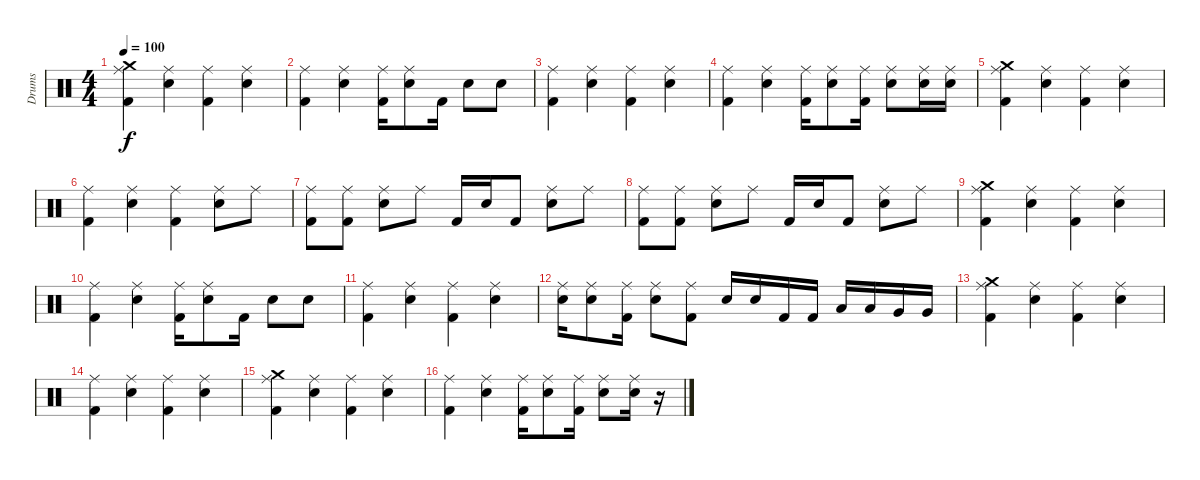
\track ("Drums" "Drums") {instrument percussion}
\staff {score}
\articulation defaults
\ts (4 4)
\tempo 100
\clef neutral
\ks c
("Kick (hit) 2" "Ride (middle)" "Crash medium (hit)").4{dy f} ("Snare (hit) 2" "Ride (middle)").4 ("Kick (hit) 2" "Ride (middle)").4 ("Snare (hit) 2" "Ride (middle)").4 |
("Kick (hit) 2" "Ride (middle)").4 ("Snare (hit) 2" "Ride (middle)").4 ("Kick (hit) 2" "Ride (middle)").16 ("Snare (hit) 2" "Ride (middle)").8 "Kick (hit) 2".16 "Snare (hit) 2".8 "Snare (hit) 2".8 |
("Kick (hit) 2" "Ride (middle)").4 ("Snare (hit) 2" "Ride (middle)").4 ("Kick (hit) 2" "Ride (middle)").4 ("Snare (hit) 2" "Ride (middle)").4 |
("Kick (hit) 2" "Ride (middle)").4 ("Snare (hit) 2" "Ride (middle)").4 ("Kick (hit) 2" "Ride (middle)").16 ("Snare (hit) 2" "Ride (middle)").8 ("Kick (hit) 2" "Ride (middle)").16 ("Snare (hit) 2" "Ride (middle)").8 ("Snare (hit) 2" "Ride (middle)").16 ("Snare (hit) 2" "Ride (middle)").16 |
("Kick (hit) 2" "Ride (middle)" "Crash medium (hit)").4 ("Snare (hit) 2" "Ride (middle)").4 ("Kick (hit) 2" "Ride (middle)").4 ("Snare (hit) 2" "Ride (middle)").4 |
("Kick (hit) 2" "Ride (middle)").4 ("Snare (hit) 2" "Ride (middle)").4 ("Kick (hit) 2" "Ride (middle)").4 ("Snare (hit) 2" "Ride (middle)").8 "Ride (middle)".8 |
("Kick (hit) 2" "Ride (middle)").8 ("Kick (hit) 2" "Ride (middle)").8 ("Snare (hit) 2" "Ride (middle)").8 "Ride (middle)".8 "Kick (hit) 2".16 "Snare (hit) 2".16 "Kick (hit) 2".8 ("Snare (hit) 2" "Ride (middle)").8 "Ride (middle)".8 |
("Kick (hit) 2" "Ride (middle)").8 ("Kick (hit) 2" "Ride (middle)").8 ("Snare (hit) 2" "Ride (middle)").8 "Ride (middle)".8 "Kick (hit) 2".16 "Snare (hit) 2".16 "Kick (hit) 2".8 ("Snare (hit) 2" "Ride (middle)").8 "Ride (middle)".8 |
("Kick (hit) 2" "Ride (middle)" "Crash medium (hit)").4 ("Snare (hit) 2" "Ride (middle)").4 ("Kick (hit) 2" "Ride (middle)").4 ("Snare (hit) 2" "Ride (middle)").4 |
("Kick (hit) 2" "Ride (middle)").4 ("Snare (hit) 2" "Ride (middle)").4 ("Kick (hit) 2" "Ride (middle)").16 ("Snare (hit) 2" "Ride (middle)").8 "Kick (hit) 2".16 "Snare (hit) 2".8 "Snare (hit) 2".8 |
("Kick (hit) 2" "Ride (middle)").4 ("Snare (hit) 2" "Ride (middle)").4 ("Kick (hit) 2" "Ride (middle)").4 ("Snare (hit) 2" "Ride (middle)").4 |
("Snare (hit) 2" "Ride (middle)").16 ("Snare (hit) 2" "Ride (middle)").8 ("Kick (hit) 2" "Ride (middle)").16 ("Snare (hit) 2" "Ride (middle)").8 ("Kick (hit) 2" "Ride (middle)").8 "Snare (hit) 2".16 "Snare (hit) 2".16 "Kick (hit) 2".16 "Kick (hit) 2".16 "Low Tom (hit)".16 "Low Tom (hit)".16 "Very Low Tom (hit)".16 "Very Low Tom (hit)".16 |
("Kick (hit) 2" "Ride (middle)" "Crash medium (hit)").4 ("Snare (hit) 2" "Ride (middle)").4 ("Kick (hit) 2" "Ride (middle)").4 ("Snare (hit) 2" "Ride (middle)").4 |
("Kick (hit) 2" "Ride (middle)").4 ("Snare (hit) 2" "Ride (middle)").4 ("Kick (hit) 2" "Ride (middle)").4 ("Snare (hit) 2" "Ride (middle)").4 |
("Kick (hit) 2" "Ride (middle)" "Crash medium (hit)").4 ("Snare (hit) 2" "Ride (middle)").4 ("Kick (hit) 2" "Ride (middle)").4 ("Snare (hit) 2" "Ride (middle)").4 |
("Kick (hit) 2" "Ride (middle)").4 ("Snare (hit) 2" "Ride (middle)").4 ("Kick (hit) 2" "Ride (middle)").16 ("Snare (hit) 2" "Ride (middle)").8 ("Kick (hit) 2" "Ride (middle)").16 ("Snare (hit) 2" "Ride (middle)").8 ("Snare (hit) 2" "Ride (middle)").16 r.16
